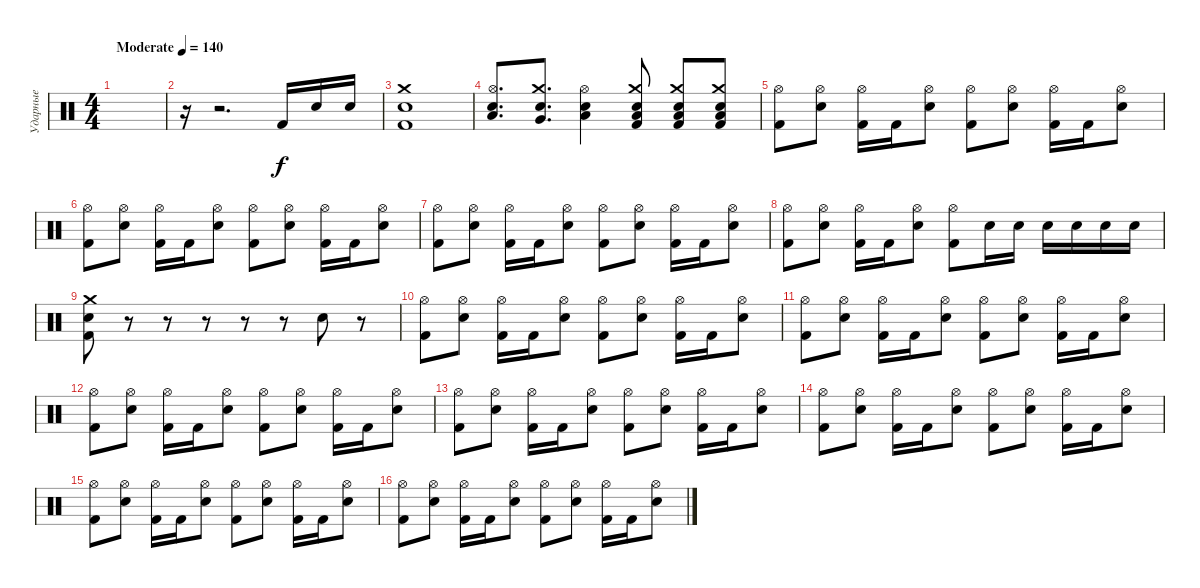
\track ("Ударные" "Ударные") {instrument percussion}
\staff {score}
\articulation defaults
\ts (4 4)
\tempo (140 "Moderate")
\clef neutral
\ks c
|
r.16 r.2{d} "Kick (hit) 2".16 "Electric Snare (hit)".16 "Electric Snare (hit)".16 |
("Crash medium (hit)" "Electric Snare (hit)" "Kick (hit) 2").1 |
("Hi-Hat (open)" "Electric Snare (hit)" "Low Floor Tom (hit)").8{d} ("Crash medium (hit)" "Electric Snare (hit)" "Very Low Tom (hit)").8{d} ("Hi-Hat (open)" "Electric Snare (hit)" "Low Floor Tom (hit)").4 ("Crash medium (hit)" "Kick (hit) 2" "Electric Snare (hit)" "Low Floor Tom (hit)").8 ("Crash medium (hit)" "Kick (hit) 2" "Electric Snare (hit)" "Low Floor Tom (hit)").8 ("Crash medium (hit)" "Kick (hit) 2" "Electric Snare (hit)" "Low Floor Tom (hit)").8 |
("Hi-Hat (open)" "Kick (hit) 2").8 ("Hi-Hat (open)" "Electric Snare (hit)").8 ("Hi-Hat (open)" "Kick (hit) 2").16 "Kick (hit) 2".16 ("Hi-Hat (open)" "Electric Snare (hit)").8 ("Hi-Hat (open)" "Kick (hit) 2").8 ("Hi-Hat (open)" "Electric Snare (hit)").8 ("Hi-Hat (open)" "Kick (hit) 2").16 "Kick (hit) 2".16 ("Hi-Hat (open)" "Electric Snare (hit)").8 |
("Hi-Hat (open)" "Kick (hit) 2").8 ("Hi-Hat (open)" "Electric Snare (hit)").8 ("Hi-Hat (open)" "Kick (hit) 2").16 "Kick (hit) 2".16 ("Hi-Hat (open)" "Electric Snare (hit)").8 ("Hi-Hat (open)" "Kick (hit) 2").8 ("Hi-Hat (open)" "Electric Snare (hit)").8 ("Hi-Hat (open)" "Kick (hit) 2").16 "Kick (hit) 2".16 ("Hi-Hat (open)" "Electric Snare (hit)").8 |
("Hi-Hat (open)" "Kick (hit) 2").8 ("Hi-Hat (open)" "Electric Snare (hit)").8 ("Hi-Hat (open)" "Kick (hit) 2").16 "Kick (hit) 2".16 ("Hi-Hat (open)" "Electric Snare (hit)").8 ("Hi-Hat (open)" "Kick (hit) 2").8 ("Hi-Hat (open)" "Electric Snare (hit)").8 ("Hi-Hat (open)" "Kick (hit) 2").16 "Kick (hit) 2".16 ("Hi-Hat (open)" "Electric Snare (hit)").8 |
("Hi-Hat (open)" "Kick (hit) 2").8 ("Hi-Hat (open)" "Electric Snare (hit)").8 ("Hi-Hat (open)" "Kick (hit) 2").16 "Kick (hit) 2".16 ("Hi-Hat (open)" "Electric Snare (hit)").8 ("Hi-Hat (open)" "Kick (hit) 2").8 "Electric Snare (hit)".16 "Electric Snare (hit)".16 "Electric Snare (hit)".16 "Electric Snare (hit)".16 "Electric Snare (hit)".16 "Electric Snare (hit)".16 |
("Crash medium (hit)" "Electric Snare (hit)" "Kick (hit) 2").8 r.8 r.8 r.8 r.8 r.8 "Electric Snare (hit)".8 r.8 |
("Hi-Hat (open)" "Kick (hit) 2").8 ("Hi-Hat (open)" "Electric Snare (hit)").8 ("Hi-Hat (open)" "Kick (hit) 2").16 "Kick (hit) 2".16 ("Hi-Hat (open)" "Electric Snare (hit)").8 ("Hi-Hat (open)" "Kick (hit) 2").8 ("Hi-Hat (open)" "Electric Snare (hit)").8 ("Hi-Hat (open)" "Kick (hit) 2").16 "Kick (hit) 2".16 ("Hi-Hat (open)" "Electric Snare (hit)").8 |
("Hi-Hat (open)" "Kick (hit) 2").8 ("Hi-Hat (open)" "Electric Snare (hit)").8 ("Hi-Hat (open)" "Kick (hit) 2").16 "Kick (hit) 2".16 ("Hi-Hat (open)" "Electric Snare (hit)").8 ("Hi-Hat (open)" "Kick (hit) 2").8 ("Hi-Hat (open)" "Electric Snare (hit)").8 ("Hi-Hat (open)" "Kick (hit) 2").16 "Kick (hit) 2".16 ("Hi-Hat (open)" "Electric Snare (hit)").8 |
("Hi-Hat (open)" "Kick (hit) 2").8 ("Hi-Hat (open)" "Electric Snare (hit)").8 ("Hi-Hat (open)" "Kick (hit) 2").16 "Kick (hit) 2".16 ("Hi-Hat (open)" "Electric Snare (hit)").8 ("Hi-Hat (open)" "Kick (hit) 2").8 ("Hi-Hat (open)" "Electric Snare (hit)").8 ("Hi-Hat (open)" "Kick (hit) 2").16 "Kick (hit) 2".16 ("Hi-Hat (open)" "Electric Snare (hit)").8 |
("Hi-Hat (open)" "Kick (hit) 2").8 ("Hi-Hat (open)" "Electric Snare (hit)").8 ("Hi-Hat (open)" "Kick (hit) 2").16 "Kick (hit) 2".16 ("Hi-Hat (open)" "Electric Snare (hit)").8 ("Hi-Hat (open)" "Kick (hit) 2").8 ("Hi-Hat (open)" "Electric Snare (hit)").8 ("Hi-Hat (open)" "Kick (hit) 2").16 "Kick (hit) 2".16 ("Hi-Hat (open)" "Electric Snare (hit)").8 |
("Hi-Hat (open)" "Kick (hit) 2").8 ("Hi-Hat (open)" "Electric Snare (hit)").8 ("Hi-Hat (open)" "Kick (hit) 2").16 "Kick (hit) 2".16 ("Hi-Hat (open)" "Electric Snare (hit)").8 ("Hi-Hat (open)" "Kick (hit) 2").8 ("Hi-Hat (open)" "Electric Snare (hit)").8 ("Hi-Hat (open)" "Kick (hit) 2").16 "Kick (hit) 2".16 ("Hi-Hat (open)" "Electric Snare (hit)").8 |
("Hi-Hat (open)" "Kick (hit) 2").8 ("Hi-Hat (open)" "Electric Snare (hit)").8 ("Hi-Hat (open)" "Kick (hit) 2").16 "Kick (hit) 2".16 ("Hi-Hat (open)" "Electric Snare (hit)").8 ("Hi-Hat (open)" "Kick (hit) 2").8 ("Hi-Hat (open)" "Electric Snare (hit)").8 ("Hi-Hat (open)" "Kick (hit) 2").16 "Kick (hit) 2".16 ("Hi-Hat (open)" "Electric Snare (hit)").8 |
("Hi-Hat (open)" "Kick (hit) 2").8 ("Hi-Hat (open)" "Electric Snare (hit)").8 ("Hi-Hat (open)" "Kick (hit) 2").16 "Kick (hit) 2".16 ("Hi-Hat (open)" "Electric Snare (hit)").8 ("Hi-Hat (open)" "Kick (hit) 2").8 ("Hi-Hat (open)" "Electric Snare (hit)").8 ("Hi-Hat (open)" "Kick (hit) 2").16 "Kick (hit) 2".16 ("Hi-Hat (open)" "Electric Snare (hit)").8
